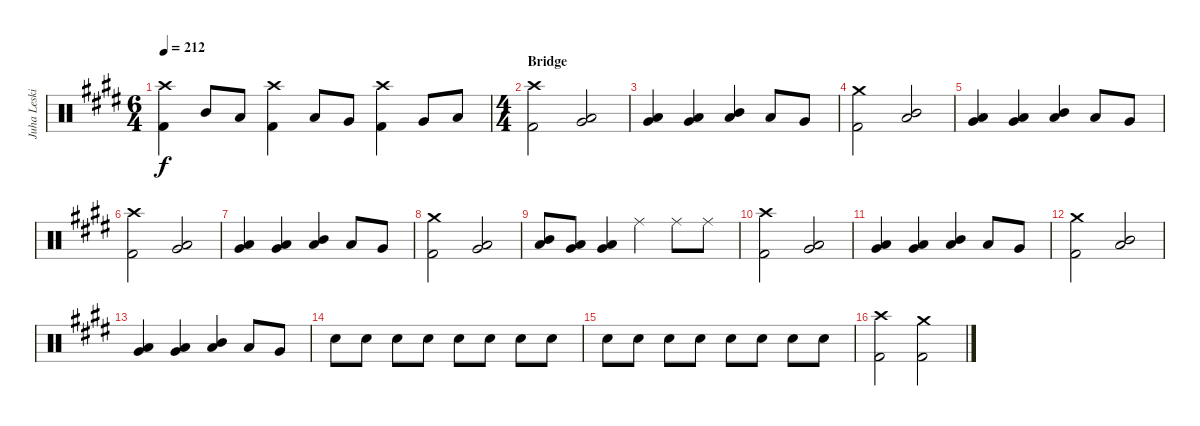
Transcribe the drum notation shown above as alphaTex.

\track ("Juha Leskinen - Drums" "Juha Leski") {instrument percussion}
\staff {score}
\articulation defaults
\ts (6 4)
\tempo 212
\clef neutral
\ks c#minor
("Crash high (hit)" "Kick (hit) 2").4{dy f} "Mid Tom (hit)".8 "Low Tom (hit)".8 ("Crash high (hit)" "Kick (hit) 2").4 "Low Tom (hit)".8 "Very Low Tom (hit)".8 ("Crash high (hit)" "Kick (hit) 2").4 "Very Low Tom (hit)".8 "Low Floor Tom (hit)".8 |
\ts (4 4)
\section ("" "Bridge ")
("Crash high (hit)" "Kick (hit) 2").2 ("Very Low Tom (hit)" "Low Floor Tom (hit)").2 |
("Low Tom (hit)" "Very Low Tom (hit)").4 ("Low Tom (hit)" "Very Low Tom (hit)").4 ("Mid Tom (hit)" "Low Tom (hit)").4 "Low Tom (hit)".8 "Very Low Tom (hit)".8 |
("Crash medium (hit)" "Kick (hit) 2").2 ("Mid Tom (hit)" "Low Tom (hit)").2 |
("Low Tom (hit)" "Very Low Tom (hit)").4 ("Low Tom (hit)" "Very Low Tom (hit)").4 ("Mid Tom (hit)" "Low Tom (hit)").4 "Low Tom (hit)".8 "Very Low Tom (hit)".8 |
("Crash high (hit)" "Kick (hit) 2").2 ("Very Low Tom (hit)" "Low Floor Tom (hit)").2 |
("Low Tom (hit)" "Very Low Tom (hit)").4 ("Low Tom (hit)" "Very Low Tom (hit)").4 ("Mid Tom (hit)" "Low Tom (hit)").4 "Low Tom (hit)".8 "Very Low Tom (hit)".8 |
("Crash medium (hit)" "Kick (hit) 2").2 ("Low Tom (hit)" "Very Low Tom (hit)").2 |
("Mid Tom (hit)" "Low Tom (hit)").8 ("Low Tom (hit)" "Very Low Tom (hit)").8 ("Very Low Tom (hit)" "Low Floor Tom (hit)").4 "Ride (middle)".4 "Ride (middle)".8 "Ride (middle)".8 |
("Crash high (hit)" "Kick (hit) 2").2 ("Very Low Tom (hit)" "Low Floor Tom (hit)").2 |
("Low Tom (hit)" "Very Low Tom (hit)").4 ("Low Tom (hit)" "Very Low Tom (hit)").4 ("Mid Tom (hit)" "Low Tom (hit)").4 "Low Tom (hit)".8 "Very Low Tom (hit)".8 |
("Crash medium (hit)" "Kick (hit) 2").2 ("Mid Tom (hit)" "Low Tom (hit)").2 |
("Low Tom (hit)" "Very Low Tom (hit)").4 ("Low Tom (hit)" "Very Low Tom (hit)").4 ("Mid Tom (hit)" "Low Tom (hit)").4 "Low Tom (hit)".8 "Very Low Tom (hit)".8 |
"Electric Snare (hit)".8 "Electric Snare (hit)".8 "Electric Snare (hit)".8 "Electric Snare (hit)".8 "Electric Snare (hit)".8 "Electric Snare (hit)".8 "Electric Snare (hit)".8 "Electric Snare (hit)".8 |
"Electric Snare (hit)".8 "Electric Snare (hit)".8 "Electric Snare (hit)".8 "Electric Snare (hit)".8 "Electric Snare (hit)".8 "Electric Snare (hit)".8 "Electric Snare (hit)".8 "Electric Snare (hit)".8 |
("Crash high (hit)" "Kick (hit) 2").2 ("Crash medium (hit)" "Kick (hit) 2").2
